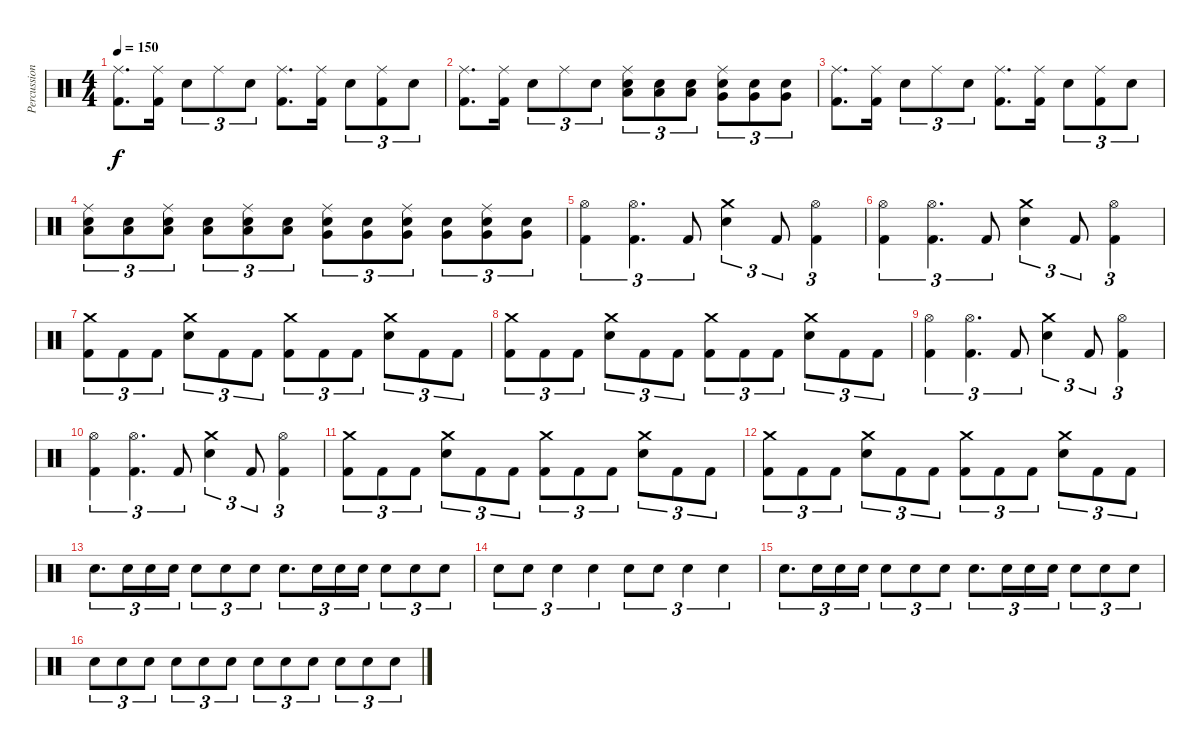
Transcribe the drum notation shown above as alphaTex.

\track ("Percussion" "Percussion") {instrument percussion}
\staff {score}
\articulation defaults
\ts (4 4)
\tempo 150
\clef neutral
\ks c
("Ride (middle)" "Kick (hit) 2").8{d dy f} ("Ride (middle)" "Kick (hit) 2").16 "Electric Snare (hit)".8{tu (3 2)} "Ride (middle)".8{tu (3 2)} "Electric Snare (hit)".8{tu (3 2)} ("Ride (middle)" "Kick (hit) 2").8{d} ("Ride (middle)" "Kick (hit) 2").16 "Electric Snare (hit)".8{tu (3 2)} ("Ride (middle)" "Kick (hit) 2").8{tu (3 2)} "Electric Snare (hit)".8{tu (3 2)} |
("Ride (middle)" "Kick (hit) 2").8{d} ("Ride (middle)" "Kick (hit) 2").16 "Electric Snare (hit)".8{tu (3 2)} "Ride (middle)".8{tu (3 2)} "Electric Snare (hit)".8{tu (3 2)} ("Ride (middle)" "Electric Snare (hit)" "Low Tom (hit)").8{tu (3 2)} ("Electric Snare (hit)" "Low Tom (hit)").8{tu (3 2)} ("Electric Snare (hit)" "Low Tom (hit)").8{tu (3 2)} ("Ride (middle)" "Electric Snare (hit)" "Very Low Tom (hit)").8{tu (3 2)} ("Electric Snare (hit)" "Very Low Tom (hit)").8{tu (3 2)} ("Electric Snare (hit)" "Very Low Tom (hit)").8{tu (3 2)} |
("Ride (middle)" "Kick (hit) 2").8{d} ("Ride (middle)" "Kick (hit) 2").16 "Electric Snare (hit)".8{tu (3 2)} "Ride (middle)".8{tu (3 2)} "Electric Snare (hit)".8{tu (3 2)} ("Ride (middle)" "Kick (hit) 2").8{d} ("Ride (middle)" "Kick (hit) 2").16 "Electric Snare (hit)".8{tu (3 2)} ("Ride (middle)" "Kick (hit) 2").8{tu (3 2)} "Electric Snare (hit)".8{tu (3 2)} |
("Ride (middle)" "Electric Snare (hit)" "Low Tom (hit)").8{tu (3 2)} ("Electric Snare (hit)" "Low Tom (hit)").8{tu (3 2)} ("Ride (middle)" "Electric Snare (hit)" "Low Tom (hit)").8{tu (3 2)} ("Electric Snare (hit)" "Low Tom (hit)").8{tu (3 2)} ("Ride (middle)" "Electric Snare (hit)" "Low Tom (hit)").8{tu (3 2)} ("Electric Snare (hit)" "Low Tom (hit)").8{tu (3 2)} ("Ride (middle)" "Electric Snare (hit)" "Very Low Tom (hit)").8{tu (3 2)} ("Electric Snare (hit)" "Very Low Tom (hit)").8{tu (3 2)} ("Ride (middle)" "Electric Snare (hit)" "Very Low Tom (hit)").8{tu (3 2)} ("Electric Snare (hit)" "Very Low Tom (hit)").8{tu (3 2)} ("Ride (middle)" "Electric Snare (hit)" "Very Low Tom (hit)").8{tu (3 2)} ("Electric Snare (hit)" "Very Low Tom (hit)").8{tu (3 2)} |
("Hi-Hat (open)" "Kick (hit) 2").4{tu (3 2)} ("Hi-Hat (open)" "Kick (hit) 2").4{d tu (3 2)} "Kick (hit) 2".8{tu (3 2)} ("Crash medium (hit)" "Electric Snare (hit)").4{tu (3 2)} "Kick (hit) 2".8{tu (3 2)} ("Hi-Hat (open)" "Kick (hit) 2").4{tu (3 2)} |
("Hi-Hat (open)" "Kick (hit) 2").4{tu (3 2)} ("Hi-Hat (open)" "Kick (hit) 2").4{d tu (3 2)} "Kick (hit) 2".8{tu (3 2)} ("Crash medium (hit)" "Electric Snare (hit)").4{tu (3 2)} "Kick (hit) 2".8{tu (3 2)} ("Hi-Hat (open)" "Kick (hit) 2").4{tu (3 2)} |
("Crash medium (hit)" "Kick (hit) 2").8{tu (3 2)} "Kick (hit) 2".8{tu (3 2)} "Kick (hit) 2".8{tu (3 2)} ("Crash medium (hit)" "Electric Snare (hit)").8{tu (3 2)} "Kick (hit) 2".8{tu (3 2)} "Kick (hit) 2".8{tu (3 2)} ("Crash medium (hit)" "Kick (hit) 2").8{tu (3 2)} "Kick (hit) 2".8{tu (3 2)} "Kick (hit) 2".8{tu (3 2)} ("Crash medium (hit)" "Electric Snare (hit)").8{tu (3 2)} "Kick (hit) 2".8{tu (3 2)} "Kick (hit) 2".8{tu (3 2)} |
("Crash medium (hit)" "Kick (hit) 2").8{tu (3 2)} "Kick (hit) 2".8{tu (3 2)} "Kick (hit) 2".8{tu (3 2)} ("Crash medium (hit)" "Electric Snare (hit)").8{tu (3 2)} "Kick (hit) 2".8{tu (3 2)} "Kick (hit) 2".8{tu (3 2)} ("Crash medium (hit)" "Kick (hit) 2").8{tu (3 2)} "Kick (hit) 2".8{tu (3 2)} "Kick (hit) 2".8{tu (3 2)} ("Crash medium (hit)" "Electric Snare (hit)").8{tu (3 2)} "Kick (hit) 2".8{tu (3 2)} "Kick (hit) 2".8{tu (3 2)} |
("Hi-Hat (open)" "Kick (hit) 2").4{tu (3 2)} ("Hi-Hat (open)" "Kick (hit) 2").4{d tu (3 2)} "Kick (hit) 2".8{tu (3 2)} ("Crash medium (hit)" "Electric Snare (hit)").4{tu (3 2)} "Kick (hit) 2".8{tu (3 2)} ("Hi-Hat (open)" "Kick (hit) 2").4{tu (3 2)} |
("Hi-Hat (open)" "Kick (hit) 2").4{tu (3 2)} ("Hi-Hat (open)" "Kick (hit) 2").4{d tu (3 2)} "Kick (hit) 2".8{tu (3 2)} ("Crash medium (hit)" "Electric Snare (hit)").4{tu (3 2)} "Kick (hit) 2".8{tu (3 2)} ("Hi-Hat (open)" "Kick (hit) 2").4{tu (3 2)} |
("Crash medium (hit)" "Kick (hit) 2").8{tu (3 2)} "Kick (hit) 2".8{tu (3 2)} "Kick (hit) 2".8{tu (3 2)} ("Crash medium (hit)" "Electric Snare (hit)").8{tu (3 2)} "Kick (hit) 2".8{tu (3 2)} "Kick (hit) 2".8{tu (3 2)} ("Crash medium (hit)" "Kick (hit) 2").8{tu (3 2)} "Kick (hit) 2".8{tu (3 2)} "Kick (hit) 2".8{tu (3 2)} ("Crash medium (hit)" "Electric Snare (hit)").8{tu (3 2)} "Kick (hit) 2".8{tu (3 2)} "Kick (hit) 2".8{tu (3 2)} |
("Crash medium (hit)" "Kick (hit) 2").8{tu (3 2)} "Kick (hit) 2".8{tu (3 2)} "Kick (hit) 2".8{tu (3 2)} ("Crash medium (hit)" "Electric Snare (hit)").8{tu (3 2)} "Kick (hit) 2".8{tu (3 2)} "Kick (hit) 2".8{tu (3 2)} ("Crash medium (hit)" "Kick (hit) 2").8{tu (3 2)} "Kick (hit) 2".8{tu (3 2)} "Kick (hit) 2".8{tu (3 2)} ("Crash medium (hit)" "Electric Snare (hit)").8{tu (3 2)} "Kick (hit) 2".8{tu (3 2)} "Kick (hit) 2".8{tu (3 2)} |
"Electric Snare (hit)".8{d tu (3 2)} "Electric Snare (hit)".16{tu (3 2)} "Electric Snare (hit)".16{tu (3 2)} "Electric Snare (hit)".16{tu (3 2)} "Electric Snare (hit)".8{tu (3 2)} "Electric Snare (hit)".8{tu (3 2)} "Electric Snare (hit)".8{tu (3 2)} "Electric Snare (hit)".8{d tu (3 2)} "Electric Snare (hit)".16{tu (3 2)} "Electric Snare (hit)".16{tu (3 2)} "Electric Snare (hit)".16{tu (3 2)} "Electric Snare (hit)".8{tu (3 2)} "Electric Snare (hit)".8{tu (3 2)} "Electric Snare (hit)".8{tu (3 2)} |
"Electric Snare (hit)".8{tu (3 2)} "Electric Snare (hit)".8{tu (3 2)} "Electric Snare (hit)".4{tu (3 2)} "Electric Snare (hit)".4{tu (3 2)} "Electric Snare (hit)".8{tu (3 2)} "Electric Snare (hit)".8{tu (3 2)} "Electric Snare (hit)".4{tu (3 2)} "Electric Snare (hit)".4{tu (3 2)} |
"Electric Snare (hit)".8{d tu (3 2)} "Electric Snare (hit)".16{tu (3 2)} "Electric Snare (hit)".16{tu (3 2)} "Electric Snare (hit)".16{tu (3 2)} "Electric Snare (hit)".8{tu (3 2)} "Electric Snare (hit)".8{tu (3 2)} "Electric Snare (hit)".8{tu (3 2)} "Electric Snare (hit)".8{d tu (3 2)} "Electric Snare (hit)".16{tu (3 2)} "Electric Snare (hit)".16{tu (3 2)} "Electric Snare (hit)".16{tu (3 2)} "Electric Snare (hit)".8{tu (3 2)} "Electric Snare (hit)".8{tu (3 2)} "Electric Snare (hit)".8{tu (3 2)} |
"Electric Snare (hit)".8{tu (3 2)} "Electric Snare (hit)".8{tu (3 2)} "Electric Snare (hit)".8{tu (3 2)} "Electric Snare (hit)".8{tu (3 2)} "Electric Snare (hit)".8{tu (3 2)} "Electric Snare (hit)".8{tu (3 2)} "Electric Snare (hit)".8{tu (3 2)} "Electric Snare (hit)".8{tu (3 2)} "Electric Snare (hit)".8{tu (3 2)} "Electric Snare (hit)".8{tu (3 2)} "Electric Snare (hit)".8{tu (3 2)} "Electric Snare (hit)".8{tu (3 2)}
